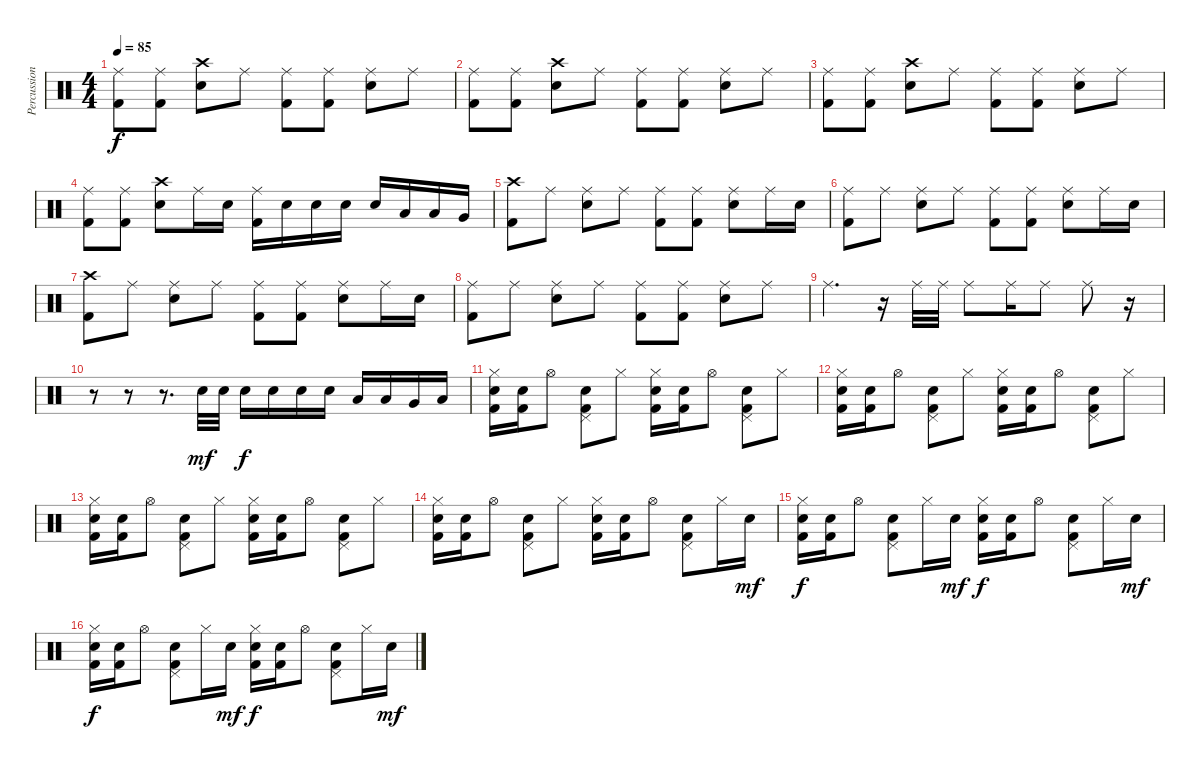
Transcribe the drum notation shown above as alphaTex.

\track ("Percussion" "Percussion") {instrument percussion}
\staff {score}
\articulation defaults
\ts (4 4)
\tempo 85
\clef neutral
\ks c
("Ride (middle)" "Kick (hit) 2").8{dy f} ("Ride (middle)" "Kick (hit) 2").8 ("Crash high (hit)" "Electric Snare (hit)").8 "Ride (middle)".8 ("Ride (middle)" "Kick (hit) 2").8 ("Ride (middle)" "Kick (hit) 2").8 ("Ride (middle)" "Electric Snare (hit)").8 "Ride (middle)".8 |
("Ride (middle)" "Kick (hit) 2").8 ("Ride (middle)" "Kick (hit) 2").8 ("Crash high (hit)" "Electric Snare (hit)").8 "Ride (middle)".8 ("Ride (middle)" "Kick (hit) 2").8 ("Ride (middle)" "Kick (hit) 2").8 ("Ride (middle)" "Electric Snare (hit)").8 "Ride (middle)".8 |
("Ride (middle)" "Kick (hit) 2").8 ("Ride (middle)" "Kick (hit) 2").8 ("Crash high (hit)" "Electric Snare (hit)").8 "Ride (middle)".8 ("Ride (middle)" "Kick (hit) 2").8 ("Ride (middle)" "Kick (hit) 2").8 ("Ride (middle)" "Electric Snare (hit)").8 "Ride (middle)".8 |
("Ride (middle)" "Kick (hit) 2").8 ("Ride (middle)" "Kick (hit) 2").8 ("Crash high (hit)" "Electric Snare (hit)").8 "Ride (middle)".16 "Electric Snare (hit)".16 ("Ride (middle)" "Kick (hit) 2").16 "Electric Snare (hit)".16 "Electric Snare (hit)".16 "Electric Snare (hit)".16 "Electric Snare (hit)".16 "Low Tom (hit)".16 "Low Tom (hit)".16 "Very Low Tom (hit)".16 |
("Crash high (hit)" "Kick (hit) 2").8 "Ride (middle)".8 ("Ride (middle)" "Electric Snare (hit)").8 "Ride (middle)".8 ("Ride (middle)" "Kick (hit) 2").8 ("Ride (middle)" "Kick (hit) 2").8 ("Ride (middle)" "Electric Snare (hit)").8 "Ride (middle)".16 "Electric Snare (hit)".16 |
("Ride (middle)" "Kick (hit) 2").8 "Ride (middle)".8 ("Ride (middle)" "Electric Snare (hit)").8 "Ride (middle)".8 ("Ride (middle)" "Kick (hit) 2").8 ("Ride (middle)" "Kick (hit) 2").8 ("Ride (middle)" "Electric Snare (hit)").8 "Ride (middle)".16 "Electric Snare (hit)".16 |
("Crash high (hit)" "Kick (hit) 2").8 "Ride (middle)".8 ("Ride (middle)" "Electric Snare (hit)").8 "Ride (middle)".8 ("Ride (middle)" "Kick (hit) 2").8 ("Ride (middle)" "Kick (hit) 2").8 ("Ride (middle)" "Electric Snare (hit)").8 "Ride (middle)".16 "Electric Snare (hit)".16 |
("Ride (middle)" "Kick (hit) 2").8 "Ride (middle)".8 ("Ride (middle)" "Electric Snare (hit)").8 "Ride (middle)".8 ("Ride (middle)" "Kick (hit) 2").8 ("Ride (middle)" "Kick (hit) 2").8 ("Ride (middle)" "Electric Snare (hit)").8 "Ride (middle)".8 |
"Ride (middle)".4{d} r.16 "Ride (middle)".32 "Ride (middle)".32 "Ride (middle)".8 "Ride (middle)".16 "Ride (middle)".8 "Ride (middle)".8 r.16 |
r.8 r.8 r.8{d} "Electric Snare (hit)".32{dy mf} "Electric Snare (hit)".32 "Electric Snare (hit)".16{dy f} "Electric Snare (hit)".16 "Electric Snare (hit)".16 "Electric Snare (hit)".16 "Low Tom (hit)".16 "Low Tom (hit)".16 "Very Low Tom (hit)".16 "Low Floor Tom (hit)".16 |
("Hi-Hat (closed)" "Electric Snare (hit)" "Kick (hit) 2").16 ("Electric Snare (hit)" "Kick (hit) 2").16 "Hi-Hat (open)".8 ("Pedal Hi-Hat (hit)" "Electric Snare (hit)" "Kick (hit) 2").8 "Hi-Hat (closed)".8 ("Hi-Hat (closed)" "Electric Snare (hit)" "Kick (hit) 2").16 ("Electric Snare (hit)" "Kick (hit) 2").16 "Hi-Hat (open)".8 ("Pedal Hi-Hat (hit)" "Electric Snare (hit)" "Kick (hit) 2").8 "Hi-Hat (closed)".8 |
("Hi-Hat (closed)" "Electric Snare (hit)" "Kick (hit) 2").16 ("Electric Snare (hit)" "Kick (hit) 2").16 "Hi-Hat (open)".8 ("Pedal Hi-Hat (hit)" "Electric Snare (hit)" "Kick (hit) 2").8 "Hi-Hat (closed)".8 ("Hi-Hat (closed)" "Electric Snare (hit)" "Kick (hit) 2").16 ("Electric Snare (hit)" "Kick (hit) 2").16 "Hi-Hat (open)".8 ("Pedal Hi-Hat (hit)" "Electric Snare (hit)" "Kick (hit) 2").8 "Hi-Hat (closed)".8 |
("Hi-Hat (closed)" "Electric Snare (hit)" "Kick (hit) 2").16 ("Electric Snare (hit)" "Kick (hit) 2").16 "Hi-Hat (open)".8 ("Pedal Hi-Hat (hit)" "Electric Snare (hit)" "Kick (hit) 2").8 "Hi-Hat (closed)".8 ("Hi-Hat (closed)" "Electric Snare (hit)" "Kick (hit) 2").16 ("Electric Snare (hit)" "Kick (hit) 2").16 "Hi-Hat (open)".8 ("Pedal Hi-Hat (hit)" "Electric Snare (hit)" "Kick (hit) 2").8 "Hi-Hat (closed)".8 |
("Hi-Hat (closed)" "Electric Snare (hit)" "Kick (hit) 2").16 ("Electric Snare (hit)" "Kick (hit) 2").16 "Hi-Hat (open)".8 ("Pedal Hi-Hat (hit)" "Electric Snare (hit)" "Kick (hit) 2").8 "Hi-Hat (closed)".8 ("Hi-Hat (closed)" "Electric Snare (hit)" "Kick (hit) 2").16 ("Electric Snare (hit)" "Kick (hit) 2").16 "Hi-Hat (open)".8 ("Pedal Hi-Hat (hit)" "Electric Snare (hit)" "Kick (hit) 2").8 "Hi-Hat (closed)".16 "Electric Snare (hit)".16{dy mf} |
("Hi-Hat (closed)" "Electric Snare (hit)" "Kick (hit) 2").16{dy f} ("Electric Snare (hit)" "Kick (hit) 2").16 "Hi-Hat (open)".8 ("Pedal Hi-Hat (hit)" "Electric Snare (hit)" "Kick (hit) 2").8 "Hi-Hat (closed)".16 "Electric Snare (hit)".16{dy mf} ("Hi-Hat (closed)" "Electric Snare (hit)" "Kick (hit) 2").16{dy f} ("Electric Snare (hit)" "Kick (hit) 2").16 "Hi-Hat (open)".8 ("Pedal Hi-Hat (hit)" "Electric Snare (hit)" "Kick (hit) 2").8 "Hi-Hat (closed)".16 "Electric Snare (hit)".16{dy mf} |
("Hi-Hat (closed)" "Electric Snare (hit)" "Kick (hit) 2").16{dy f} ("Electric Snare (hit)" "Kick (hit) 2").16 "Hi-Hat (open)".8 ("Pedal Hi-Hat (hit)" "Electric Snare (hit)" "Kick (hit) 2").8 "Hi-Hat (closed)".16 "Electric Snare (hit)".16{dy mf} ("Hi-Hat (closed)" "Electric Snare (hit)" "Kick (hit) 2").16{dy f} ("Electric Snare (hit)" "Kick (hit) 2").16 "Hi-Hat (open)".8 ("Pedal Hi-Hat (hit)" "Electric Snare (hit)" "Kick (hit) 2").8 "Hi-Hat (closed)".16 "Electric Snare (hit)".16{dy mf}
